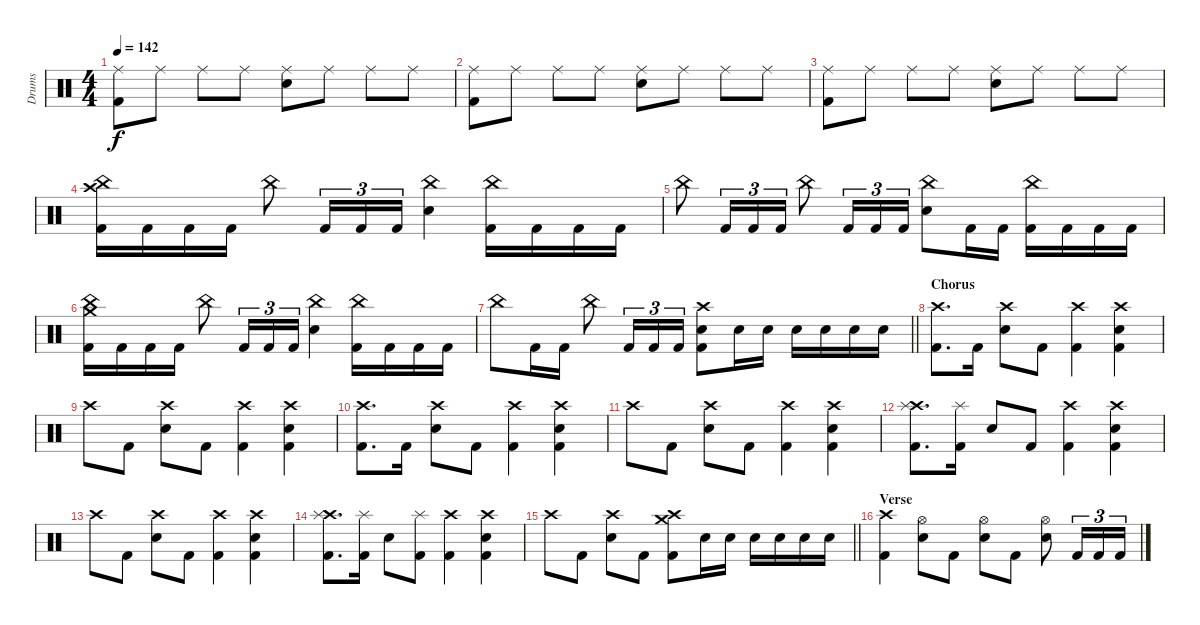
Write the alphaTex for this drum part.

\track ("Drums" "Drums") {instrument percussion}
\staff {score}
\articulation defaults
\ts (4 4)
\tempo 142
\clef neutral
\ks c
("Ride (middle)" "Kick (hit) 2").8{dy f} "Ride (middle)".8 "Ride (middle)".8 "Ride (middle)".8 ("Ride (middle)" "Electric Snare (hit)").8 "Ride (middle)".8 "Ride (middle)".8 "Ride (middle)".8 |
("Ride (middle)" "Kick (hit) 2").8 "Ride (middle)".8 "Ride (middle)".8 "Ride (middle)".8 ("Ride (middle)" "Electric Snare (hit)").8 "Ride (middle)".8 "Ride (middle)".8 "Ride (middle)".8 |
("Ride (middle)" "Kick (hit) 2").8 "Ride (middle)".8 "Ride (middle)".8 "Ride (middle)".8 ("Ride (middle)" "Electric Snare (hit)").8 "Ride (middle)".8 "Ride (middle)".8 "Ride (middle)".8 |
("Crash high (hit)" "China (hit)" "Kick (hit) 2").16 "Kick (hit) 2".16 "Kick (hit) 2".16 "Kick (hit) 2".16 "China (hit)".8 "Kick (hit) 2".16{tu (3 2)} "Kick (hit) 2".16{tu (3 2)} "Kick (hit) 2".16{tu (3 2)} ("China (hit)" "Electric Snare (hit)").4 ("China (hit)" "Kick (hit) 2").16 "Kick (hit) 2".16 "Kick (hit) 2".16 "Kick (hit) 2".16 |
"China (hit)".8 "Kick (hit) 2".16{tu (3 2)} "Kick (hit) 2".16{tu (3 2)} "Kick (hit) 2".16{tu (3 2)} "China (hit)".8 "Kick (hit) 2".16{tu (3 2)} "Kick (hit) 2".16{tu (3 2)} "Kick (hit) 2".16{tu (3 2)} ("China (hit)" "Electric Snare (hit)").8 "Kick (hit) 2".16 "Kick (hit) 2".16 ("China (hit)" "Kick (hit) 2").16 "Kick (hit) 2".16 "Kick (hit) 2".16 "Kick (hit) 2".16 |
("Crash medium (hit)" "China (hit)" "Kick (hit) 2").16 "Kick (hit) 2".16 "Kick (hit) 2".16 "Kick (hit) 2".16 "China (hit)".8 "Kick (hit) 2".16{tu (3 2)} "Kick (hit) 2".16{tu (3 2)} "Kick (hit) 2".16{tu (3 2)} ("China (hit)" "Electric Snare (hit)").4 ("China (hit)" "Kick (hit) 2").16 "Kick (hit) 2".16 "Kick (hit) 2".16 "Kick (hit) 2".16 |
\barLineRight lightlight "China (hit)".8 "Kick (hit) 2".16 "Kick (hit) 2".16 "China (hit)".8 "Kick (hit) 2".16{tu (3 2)} "Kick (hit) 2".16{tu (3 2)} "Kick (hit) 2".16{tu (3 2)}
("Crash high (hit)" "Electric Snare (hit)" "Kick (hit) 2").8 "Electric Snare (hit)".16 "Electric Snare (hit)".16 "Electric Snare (hit)".16 "Electric Snare (hit)".16 "Electric Snare (hit)".16 "Electric Snare (hit)".16 |
\section ("" "Chorus")
("Crash high (hit)" "Kick (hit) 2").8{d} "Kick (hit) 2".16 ("Crash high (hit)" "Electric Snare (hit)").8 "Kick (hit) 2".8 ("Crash high (hit)" "Kick (hit) 2").4 ("Crash high (hit)" "Electric Snare (hit)" "Kick (hit) 2").4 |
"Crash high (hit)".8 "Kick (hit) 2".8 ("Crash high (hit)" "Electric Snare (hit)").8 "Kick (hit) 2".8 ("Crash high (hit)" "Kick (hit) 2").4 ("Crash high (hit)" "Electric Snare (hit)" "Kick (hit) 2").4 |
("Crash high (hit)" "Kick (hit) 2").8{d} "Kick (hit) 2".16 ("Crash high (hit)" "Electric Snare (hit)").8 "Kick (hit) 2".8 ("Crash high (hit)" "Kick (hit) 2").4 ("Crash high (hit)" "Electric Snare (hit)" "Kick (hit) 2").4 |
"Crash high (hit)".8 "Kick (hit) 2".8 ("Crash high (hit)" "Electric Snare (hit)").8 "Kick (hit) 2".8 ("Crash high (hit)" "Kick (hit) 2").4 ("Crash high (hit)" "Electric Snare (hit)" "Kick (hit) 2").4 |
("Crash high (hit)" "Splash (hit)" "Kick (hit) 2").8{d} ("Splash (hit)" "Kick (hit) 2").16 "Electric Snare (hit)".8 "Kick (hit) 2".8 ("Crash high (hit)" "Kick (hit) 2").4 ("Crash high (hit)" "Electric Snare (hit)" "Kick (hit) 2").4 |
"Crash high (hit)".8 "Kick (hit) 2".8 ("Crash high (hit)" "Electric Snare (hit)").8 "Kick (hit) 2".8 ("Crash high (hit)" "Kick (hit) 2").4 ("Crash high (hit)" "Electric Snare (hit)" "Kick (hit) 2").4 |
("Crash high (hit)" "Splash (hit)" "Kick (hit) 2").8{d} ("Splash (hit)" "Kick (hit) 2").16 "Electric Snare (hit)".8 ("Splash (hit)" "Kick (hit) 2").8 ("Crash high (hit)" "Kick (hit) 2").4 ("Crash high (hit)" "Electric Snare (hit)" "Kick (hit) 2").4 |
\barLineRight lightlight "Crash high (hit)".8 "Kick (hit) 2".8
("Crash high (hit)" "Electric Snare (hit)").8 "Kick (hit) 2".8 ("Crash high (hit)" "Crash medium (hit)" "Kick (hit) 2").8 "Electric Snare (hit)".16 "Electric Snare (hit)".16 "Electric Snare (hit)".16 "Electric Snare (hit)".16 "Electric Snare (hit)".16 "Electric Snare (hit)".16 |
\section ("" "Verse")
("Crash high (hit)" "Kick (hit) 2").4 ("Hi-Hat (open)" "Electric Snare (hit)").8 "Kick (hit) 2".8 ("Hi-Hat (open)" "Electric Snare (hit)").8 "Kick (hit) 2".8 ("Hi-Hat (open)" "Electric Snare (hit)").8 "Kick (hit) 2".16{tu (3 2)} "Kick (hit) 2".16{tu (3 2)} "Kick (hit) 2".16{tu (3 2)}
